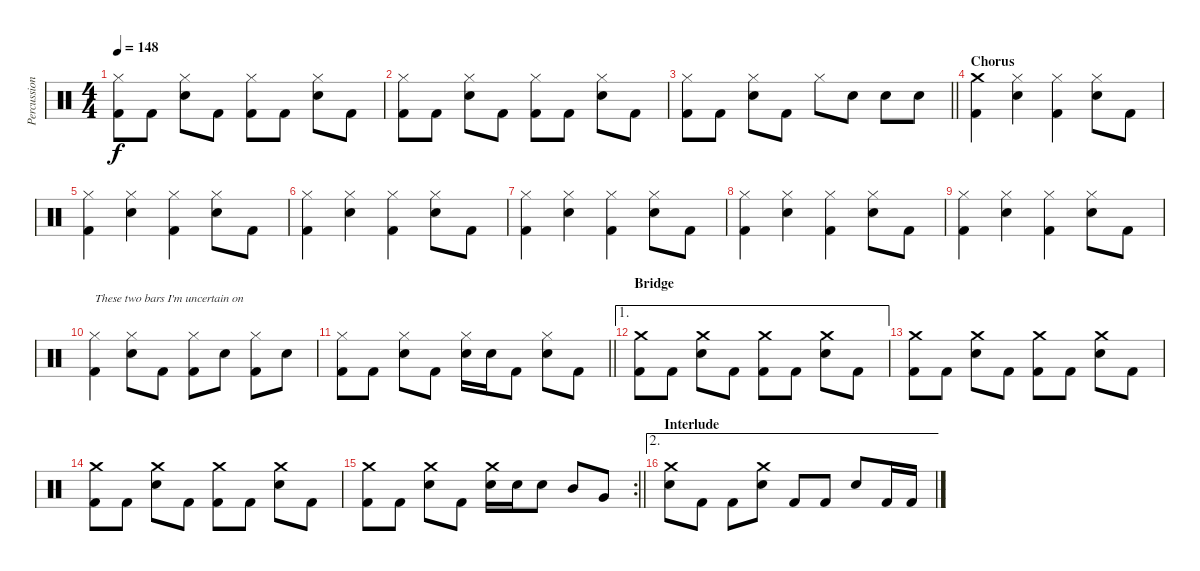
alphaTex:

\track ("Percussion - Dennis Wolfe" "Percussion") {instrument percussion}
\staff {score}
\articulation defaults
\ts (4 4)
\tempo 148
\clef neutral
\ks c
("Hi-Hat (closed)" "Kick (hit) 2").8{dy f} "Kick (hit) 2".8 ("Hi-Hat (closed)" "Snare (hit) 2").8 "Kick (hit) 2".8 ("Hi-Hat (closed)" "Kick (hit) 2").8 "Kick (hit) 2".8 ("Hi-Hat (closed)" "Snare (hit) 2").8 "Kick (hit) 2".8 |
("Hi-Hat (closed)" "Kick (hit) 2").8 "Kick (hit) 2".8 ("Hi-Hat (closed)" "Snare (hit) 2").8 "Kick (hit) 2".8 ("Hi-Hat (closed)" "Kick (hit) 2").8 "Kick (hit) 2".8 ("Hi-Hat (closed)" "Snare (hit) 2").8 "Kick (hit) 2".8 |
\barLineRight lightlight
("Hi-Hat (closed)" "Kick (hit) 2").8 "Kick (hit) 2".8 ("Hi-Hat (closed)" "Snare (hit) 2").8 "Kick (hit) 2".8 "Hi-Hat (closed)".8 "Snare (hit) 2".8 "Snare (hit) 2".8 "Snare (hit) 2".8 |
\section ("" "Chorus")
("Crash medium (hit)" "Kick (hit) 2").4 ("Hi-Hat (closed)" "Snare (hit) 2").4 ("Hi-Hat (closed)" "Kick (hit) 2").4 ("Hi-Hat (closed)" "Snare (hit) 2").8 "Kick (hit) 2".8 |
("Hi-Hat (closed)" "Kick (hit) 2").4 ("Hi-Hat (closed)" "Snare (hit) 2").4 ("Hi-Hat (closed)" "Kick (hit) 2").4 ("Hi-Hat (closed)" "Snare (hit) 2").8 "Kick (hit) 2".8 |
("Hi-Hat (closed)" "Kick (hit) 2").4 ("Hi-Hat (closed)" "Snare (hit) 2").4 ("Hi-Hat (closed)" "Kick (hit) 2").4 ("Hi-Hat (closed)" "Snare (hit) 2").8 "Kick (hit) 2".8 |
("Hi-Hat (closed)" "Kick (hit) 2").4 ("Hi-Hat (closed)" "Snare (hit) 2").4 ("Hi-Hat (closed)" "Kick (hit) 2").4 ("Hi-Hat (closed)" "Snare (hit) 2").8 "Kick (hit) 2".8 |
("Hi-Hat (closed)" "Kick (hit) 2").4 ("Hi-Hat (closed)" "Snare (hit) 2").4 ("Hi-Hat (closed)" "Kick (hit) 2").4 ("Hi-Hat (closed)" "Snare (hit) 2").8 "Kick (hit) 2".8 |
("Hi-Hat (closed)" "Kick (hit) 2").4 ("Hi-Hat (closed)" "Snare (hit) 2").4 ("Hi-Hat (closed)" "Kick (hit) 2").4 ("Hi-Hat (closed)" "Snare (hit) 2").8 "Kick (hit) 2".8 |
("Hi-Hat (closed)" "Kick (hit) 2").4{txt "These two bars I'm uncertain on"} ("Hi-Hat (closed)" "Snare (hit) 2").8 "Kick (hit) 2".8 ("Hi-Hat (closed)" "Kick (hit) 2").8 "Snare (hit) 2".8 ("Hi-Hat (closed)" "Kick (hit) 2").8 "Snare (hit) 2".8 |
\barLineRight lightlight
("Hi-Hat (closed)" "Kick (hit) 2").8 "Kick (hit) 2".8 ("Hi-Hat (closed)" "Snare (hit) 2").8 "Kick (hit) 2".8 ("Hi-Hat (closed)" "Snare (hit) 2").16 "Snare (hit) 2".16 "Kick (hit) 2".8 ("Hi-Hat (closed)" "Snare (hit) 2").8 "Kick (hit) 2".8 |
\ae 1
\section ("" "Bridge")
("Crash medium (hit)" "Kick (hit) 2").8 "Kick (hit) 2".8 ("Crash medium (hit)" "Snare (hit) 2").8 "Kick (hit) 2".8 ("Crash medium (hit)" "Kick (hit) 2").8 "Kick (hit) 2".8 ("Crash medium (hit)" "Snare (hit) 2").8 "Kick (hit) 2".8 |
("Crash medium (hit)" "Kick (hit) 2").8 "Kick (hit) 2".8 ("Crash medium (hit)" "Snare (hit) 2").8 "Kick (hit) 2".8 ("Crash medium (hit)" "Kick (hit) 2").8 "Kick (hit) 2".8 ("Crash medium (hit)" "Snare (hit) 2").8 "Kick (hit) 2".8 |
("Crash medium (hit)" "Kick (hit) 2").8 "Kick (hit) 2".8 ("Crash medium (hit)" "Snare (hit) 2").8 "Kick (hit) 2".8 ("Crash medium (hit)" "Kick (hit) 2").8 "Kick (hit) 2".8 ("Crash medium (hit)" "Snare (hit) 2").8 "Kick (hit) 2".8 |
\rc 2
\barLineRight lightlight
("Crash medium (hit)" "Kick (hit) 2").8 "Kick (hit) 2".8 ("Crash medium (hit)" "Snare (hit) 2").8 "Kick (hit) 2".8 ("Crash medium (hit)" "Snare (hit) 2").16 "Snare (hit) 2".16 "Snare (hit) 2".8 "Mid Tom (hit)".8 "Very Low Tom (hit)".8 |
\ae 2
\section ("" "Interlude")
("Crash medium (hit)" "Snare (hit) 2").8 "Kick (hit) 2".8 "Kick (hit) 2".8 ("Crash medium (hit)" "Snare (hit) 2").8 "Kick (hit) 2".8 "Kick (hit) 2".8 "Snare (hit) 2".8 "Kick (hit) 2".16 "Kick (hit) 2".16
